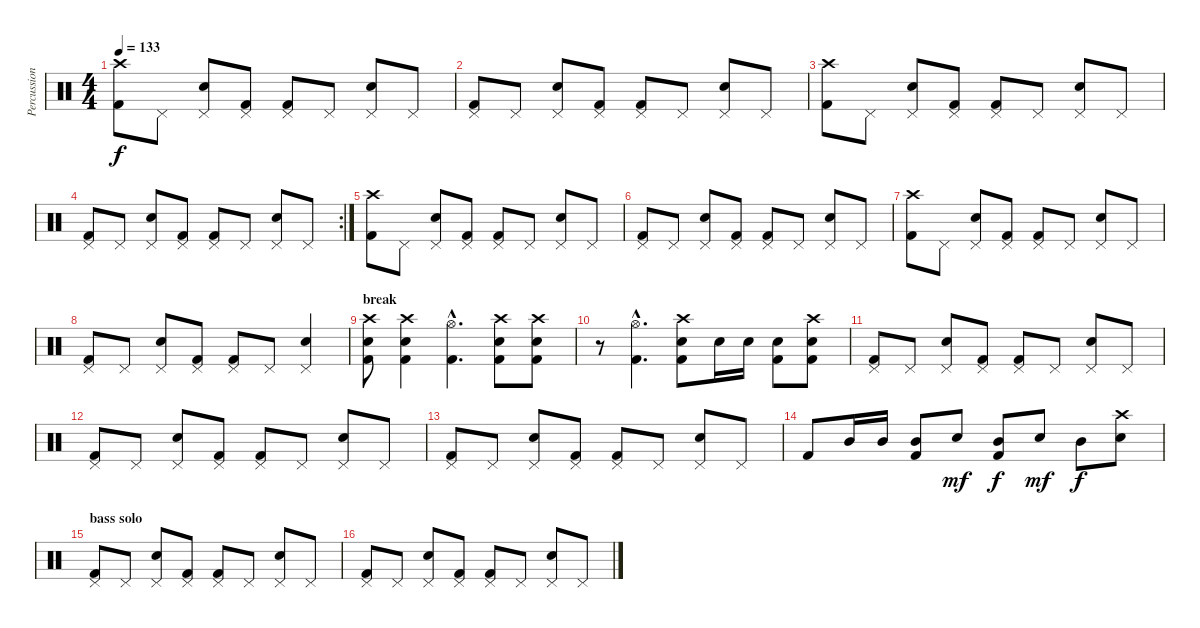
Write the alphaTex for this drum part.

\track ("Percussions" "Percussion") {instrument percussion}
\staff {score}
\articulation defaults
\ts (4 4)
\tempo 133
\clef neutral
\ks c
("Crash high (hit)" "Kick (hit) 2").8{dy f} "Pedal Hi-Hat (hit)".8 ("Pedal Hi-Hat (hit)" "Snare (hit) 2").8 ("Pedal Hi-Hat (hit)" "Kick (hit) 2").8 ("Pedal Hi-Hat (hit)" "Kick (hit) 2").8 "Pedal Hi-Hat (hit)".8 ("Pedal Hi-Hat (hit)" "Snare (hit) 2").8 "Pedal Hi-Hat (hit)".8 |
("Pedal Hi-Hat (hit)" "Kick (hit) 2").8 "Pedal Hi-Hat (hit)".8 ("Pedal Hi-Hat (hit)" "Snare (hit) 2").8 ("Pedal Hi-Hat (hit)" "Kick (hit) 2").8 ("Pedal Hi-Hat (hit)" "Kick (hit) 2").8 "Pedal Hi-Hat (hit)".8 ("Pedal Hi-Hat (hit)" "Snare (hit) 2").8 "Pedal Hi-Hat (hit)".8 |
("Crash high (hit)" "Kick (hit) 2").8 "Pedal Hi-Hat (hit)".8 ("Pedal Hi-Hat (hit)" "Snare (hit) 2").8 ("Pedal Hi-Hat (hit)" "Kick (hit) 2").8 ("Pedal Hi-Hat (hit)" "Kick (hit) 2").8 "Pedal Hi-Hat (hit)".8 ("Pedal Hi-Hat (hit)" "Snare (hit) 2").8 "Pedal Hi-Hat (hit)".8 |
\rc 2
("Pedal Hi-Hat (hit)" "Kick (hit) 2").8 "Pedal Hi-Hat (hit)".8 ("Pedal Hi-Hat (hit)" "Snare (hit) 2").8 ("Pedal Hi-Hat (hit)" "Kick (hit) 2").8 ("Pedal Hi-Hat (hit)" "Kick (hit) 2").8 "Pedal Hi-Hat (hit)".8 ("Pedal Hi-Hat (hit)" "Snare (hit) 2").8 "Pedal Hi-Hat (hit)".8 |
("Crash high (hit)" "Kick (hit) 2").8 "Pedal Hi-Hat (hit)".8 ("Pedal Hi-Hat (hit)" "Snare (hit) 2").8 ("Pedal Hi-Hat (hit)" "Kick (hit) 2").8 ("Pedal Hi-Hat (hit)" "Kick (hit) 2").8 "Pedal Hi-Hat (hit)".8 ("Pedal Hi-Hat (hit)" "Snare (hit) 2").8 "Pedal Hi-Hat (hit)".8 |
("Pedal Hi-Hat (hit)" "Kick (hit) 2").8 "Pedal Hi-Hat (hit)".8 ("Pedal Hi-Hat (hit)" "Snare (hit) 2").8 ("Pedal Hi-Hat (hit)" "Kick (hit) 2").8 ("Pedal Hi-Hat (hit)" "Kick (hit) 2").8 "Pedal Hi-Hat (hit)".8 ("Pedal Hi-Hat (hit)" "Snare (hit) 2").8 "Pedal Hi-Hat (hit)".8 |
("Crash high (hit)" "Kick (hit) 2").8 "Pedal Hi-Hat (hit)".8 ("Pedal Hi-Hat (hit)" "Snare (hit) 2").8 ("Pedal Hi-Hat (hit)" "Kick (hit) 2").8 ("Pedal Hi-Hat (hit)" "Kick (hit) 2").8 "Pedal Hi-Hat (hit)".8 ("Pedal Hi-Hat (hit)" "Snare (hit) 2").8 "Pedal Hi-Hat (hit)".8 |
("Pedal Hi-Hat (hit)" "Kick (hit) 2").8 "Pedal Hi-Hat (hit)".8 ("Pedal Hi-Hat (hit)" "Snare (hit) 2").8 ("Pedal Hi-Hat (hit)" "Kick (hit) 2").8 ("Pedal Hi-Hat (hit)" "Kick (hit) 2").8 "Pedal Hi-Hat (hit)".8 ("Pedal Hi-Hat (hit)" "Snare (hit) 2").4 |
\section ("" "break")
("Crash high (hit)" "Snare (hit) 2" "Kick (hit) 2").8 ("Crash high (hit)" "Snare (hit) 2" "Kick (hit) 2").4 ("Hi-Hat (open)"{hac} "Kick (hit) 2"{hac}).4{d} ("Crash high (hit)" "Snare (hit) 2" "Kick (hit) 2").8 ("Crash high (hit)" "Snare (hit) 2" "Kick (hit) 2").8 |
r.8 ("Hi-Hat (open)"{hac} "Kick (hit) 2"{hac}).4{d} ("Crash high (hit)" "Snare (hit) 2" "Kick (hit) 2").8 "Snare (hit) 2".16 "Snare (hit) 2".16 ("Snare (hit) 2" "Kick (hit) 2").8 ("Crash high (hit)" "Electric Snare (hit)" "Kick (hit) 2").8 |
("Pedal Hi-Hat (hit)" "Kick (hit) 2").8 "Pedal Hi-Hat (hit)".8 ("Pedal Hi-Hat (hit)" "Snare (hit) 2").8 ("Pedal Hi-Hat (hit)" "Kick (hit) 2").8 ("Pedal Hi-Hat (hit)" "Kick (hit) 2").8 "Pedal Hi-Hat (hit)".8 ("Pedal Hi-Hat (hit)" "Snare (hit) 2").8 "Pedal Hi-Hat (hit)".8 |
("Pedal Hi-Hat (hit)" "Kick (hit) 2").8 "Pedal Hi-Hat (hit)".8 ("Pedal Hi-Hat (hit)" "Snare (hit) 2").8 ("Pedal Hi-Hat (hit)" "Kick (hit) 2").8 ("Pedal Hi-Hat (hit)" "Kick (hit) 2").8 "Pedal Hi-Hat (hit)".8 ("Pedal Hi-Hat (hit)" "Snare (hit) 2").8 "Pedal Hi-Hat (hit)".8 |
("Pedal Hi-Hat (hit)" "Kick (hit) 2").8 "Pedal Hi-Hat (hit)".8 ("Pedal Hi-Hat (hit)" "Snare (hit) 2").8 ("Pedal Hi-Hat (hit)" "Kick (hit) 2").8 ("Pedal Hi-Hat (hit)" "Kick (hit) 2").8 "Pedal Hi-Hat (hit)".8 ("Pedal Hi-Hat (hit)" "Snare (hit) 2").8 "Pedal Hi-Hat (hit)".8 |
"Kick (hit) 2".8 "Mid Tom (hit)".16 "Mid Tom (hit)".16 ("Mid Tom (hit)" "Kick (hit) 2").8 "Snare (hit) 2".8{dy mf} ("Mid Tom (hit)" "Kick (hit) 2").8{dy f} "Snare (hit) 2".8{dy mf} "Mid Tom (hit)".8{dy f} ("Crash high (hit)" "Snare (hit) 2").8 |
\section ("" "bass solo")
("Pedal Hi-Hat (hit)" "Kick (hit) 2").8 "Pedal Hi-Hat (hit)".8 ("Pedal Hi-Hat (hit)" "Snare (hit) 2").8 ("Pedal Hi-Hat (hit)" "Kick (hit) 2").8 ("Pedal Hi-Hat (hit)" "Kick (hit) 2").8 "Pedal Hi-Hat (hit)".8 ("Pedal Hi-Hat (hit)" "Snare (hit) 2").8 "Pedal Hi-Hat (hit)".8 |
("Pedal Hi-Hat (hit)" "Kick (hit) 2").8 "Pedal Hi-Hat (hit)".8 ("Pedal Hi-Hat (hit)" "Snare (hit) 2").8 ("Pedal Hi-Hat (hit)" "Kick (hit) 2").8 ("Pedal Hi-Hat (hit)" "Kick (hit) 2").8 "Pedal Hi-Hat (hit)".8 ("Pedal Hi-Hat (hit)" "Snare (hit) 2").8 "Pedal Hi-Hat (hit)".8
